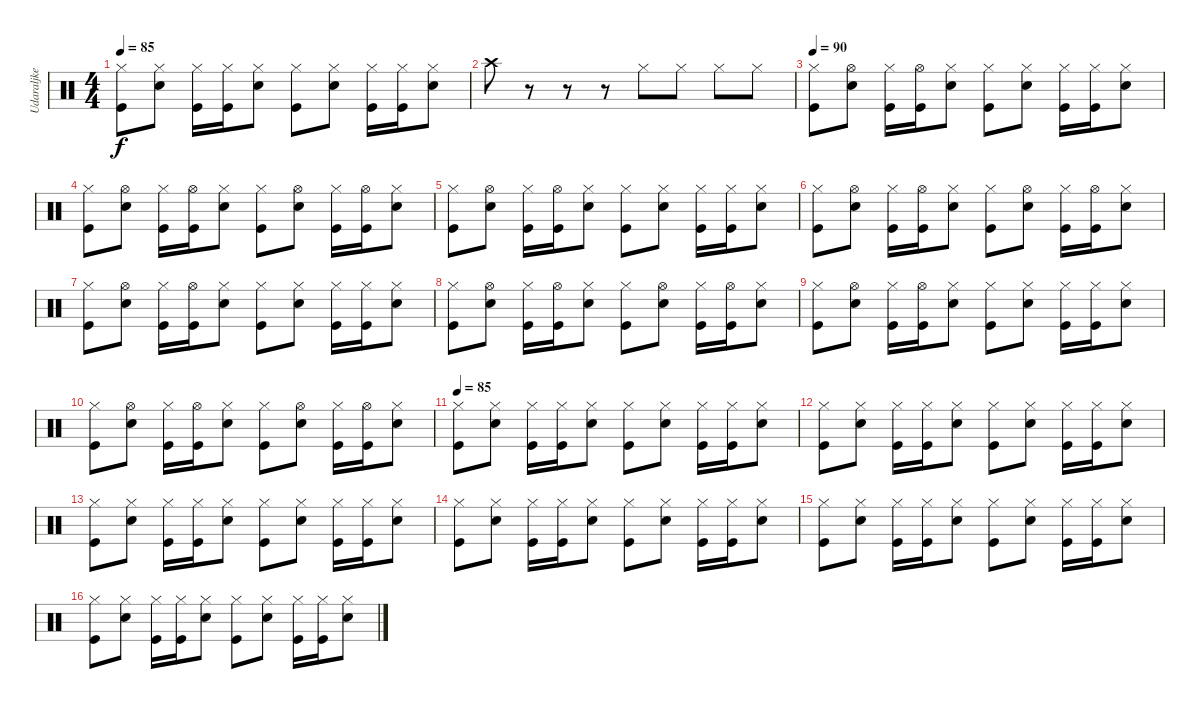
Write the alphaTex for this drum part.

\track ("Udaraljke" "Udaraljke") {instrument percussion}
\staff {score}
\articulation defaults
\ts (4 4)
\tempo 85
\clef neutral
\ks c
("Kick (hit)" "Hi-Hat (closed)").8{dy f} ("Snare (hit) 2" "Hi-Hat (closed)").8 ("Kick (hit)" "Hi-Hat (closed)").16 ("Kick (hit)" "Hi-Hat (closed)").16 ("Snare (hit) 2" "Hi-Hat (closed)").8 ("Kick (hit)" "Hi-Hat (closed)").8 ("Snare (hit) 2" "Hi-Hat (closed)").8 ("Kick (hit)" "Hi-Hat (closed)").16 ("Kick (hit)" "Hi-Hat (closed)").16 ("Snare (hit) 2" "Hi-Hat (closed)").8 |
"Crash high (hit)".8 r.8 r.8 r.8 "Hi-Hat (closed)".8 "Hi-Hat (closed)".8 "Hi-Hat (closed)".8 "Hi-Hat (closed)".8 |
\tempo 90
("Kick (hit)" "Hi-Hat (closed)").8 ("Snare (hit) 2" "Hi-Hat (open)").8 ("Kick (hit)" "Hi-Hat (closed)").16 ("Kick (hit)" "Hi-Hat (open)").16 ("Snare (hit) 2" "Hi-Hat (closed)").8 ("Kick (hit)" "Hi-Hat (closed)").8 ("Snare (hit) 2" "Hi-Hat (closed)").8 ("Kick (hit)" "Hi-Hat (closed)").16 ("Kick (hit)" "Hi-Hat (closed)").16 ("Snare (hit) 2" "Hi-Hat (closed)").8 |
("Kick (hit)" "Hi-Hat (closed)").8 ("Snare (hit) 2" "Hi-Hat (open)").8 ("Kick (hit)" "Hi-Hat (closed)").16 ("Kick (hit)" "Hi-Hat (open)").16 ("Snare (hit) 2" "Hi-Hat (closed)").8 ("Kick (hit)" "Hi-Hat (closed)").8 ("Snare (hit) 2" "Hi-Hat (open)").8 ("Kick (hit)" "Hi-Hat (closed)").16 ("Kick (hit)" "Hi-Hat (open)").16 ("Snare (hit) 2" "Hi-Hat (closed)").8 |
("Kick (hit)" "Hi-Hat (closed)").8 ("Snare (hit) 2" "Hi-Hat (open)").8 ("Kick (hit)" "Hi-Hat (closed)").16 ("Kick (hit)" "Hi-Hat (open)").16 ("Snare (hit) 2" "Hi-Hat (closed)").8 ("Kick (hit)" "Hi-Hat (closed)").8 ("Snare (hit) 2" "Hi-Hat (closed)").8 ("Kick (hit)" "Hi-Hat (closed)").16 ("Kick (hit)" "Hi-Hat (closed)").16 ("Snare (hit) 2" "Hi-Hat (closed)").8 |
("Kick (hit)" "Hi-Hat (closed)").8 ("Snare (hit) 2" "Hi-Hat (open)").8 ("Kick (hit)" "Hi-Hat (closed)").16 ("Kick (hit)" "Hi-Hat (open)").16 ("Snare (hit) 2" "Hi-Hat (closed)").8 ("Kick (hit)" "Hi-Hat (closed)").8 ("Snare (hit) 2" "Hi-Hat (open)").8 ("Kick (hit)" "Hi-Hat (closed)").16 ("Kick (hit)" "Hi-Hat (open)").16 ("Snare (hit) 2" "Hi-Hat (closed)").8 |
("Kick (hit)" "Hi-Hat (closed)").8 ("Snare (hit) 2" "Hi-Hat (open)").8 ("Kick (hit)" "Hi-Hat (closed)").16 ("Kick (hit)" "Hi-Hat (open)").16 ("Snare (hit) 2" "Hi-Hat (closed)").8 ("Kick (hit)" "Hi-Hat (closed)").8 ("Snare (hit) 2" "Hi-Hat (closed)").8 ("Kick (hit)" "Hi-Hat (closed)").16 ("Kick (hit)" "Hi-Hat (closed)").16 ("Snare (hit) 2" "Hi-Hat (closed)").8 |
("Kick (hit)" "Hi-Hat (closed)").8 ("Snare (hit) 2" "Hi-Hat (open)").8 ("Kick (hit)" "Hi-Hat (closed)").16 ("Kick (hit)" "Hi-Hat (open)").16 ("Snare (hit) 2" "Hi-Hat (closed)").8 ("Kick (hit)" "Hi-Hat (closed)").8 ("Snare (hit) 2" "Hi-Hat (open)").8 ("Kick (hit)" "Hi-Hat (closed)").16 ("Kick (hit)" "Hi-Hat (open)").16 ("Snare (hit) 2" "Hi-Hat (closed)").8 |
("Kick (hit)" "Hi-Hat (closed)").8 ("Snare (hit) 2" "Hi-Hat (open)").8 ("Kick (hit)" "Hi-Hat (closed)").16 ("Kick (hit)" "Hi-Hat (open)").16 ("Snare (hit) 2" "Hi-Hat (closed)").8 ("Kick (hit)" "Hi-Hat (closed)").8 ("Snare (hit) 2" "Hi-Hat (closed)").8 ("Kick (hit)" "Hi-Hat (closed)").16 ("Kick (hit)" "Hi-Hat (closed)").16 ("Snare (hit) 2" "Hi-Hat (closed)").8 |
("Kick (hit)" "Hi-Hat (closed)").8 ("Snare (hit) 2" "Hi-Hat (open)").8 ("Kick (hit)" "Hi-Hat (closed)").16 ("Kick (hit)" "Hi-Hat (open)").16 ("Snare (hit) 2" "Hi-Hat (closed)").8 ("Kick (hit)" "Hi-Hat (closed)").8 ("Snare (hit) 2" "Hi-Hat (open)").8 ("Kick (hit)" "Hi-Hat (closed)").16 ("Kick (hit)" "Hi-Hat (open)").16 ("Snare (hit) 2" "Hi-Hat (closed)").8 |
\tempo 85
("Kick (hit)" "Hi-Hat (closed)").8 ("Snare (hit) 2" "Hi-Hat (closed)").8 ("Kick (hit)" "Hi-Hat (closed)").16 ("Kick (hit)" "Hi-Hat (closed)").16 ("Snare (hit) 2" "Hi-Hat (closed)").8 ("Kick (hit)" "Hi-Hat (closed)").8 ("Snare (hit) 2" "Hi-Hat (closed)").8 ("Kick (hit)" "Hi-Hat (closed)").16 ("Kick (hit)" "Hi-Hat (closed)").16 ("Snare (hit) 2" "Hi-Hat (closed)").8 |
("Kick (hit)" "Hi-Hat (closed)").8 ("Snare (hit) 2" "Hi-Hat (closed)").8 ("Kick (hit)" "Hi-Hat (closed)").16 ("Kick (hit)" "Hi-Hat (closed)").16 ("Snare (hit) 2" "Hi-Hat (closed)").8 ("Kick (hit)" "Hi-Hat (closed)").8 ("Snare (hit) 2" "Hi-Hat (closed)").8 ("Kick (hit)" "Hi-Hat (closed)").16 ("Kick (hit)" "Hi-Hat (closed)").16 ("Snare (hit) 2" "Hi-Hat (closed)").8 |
("Kick (hit)" "Hi-Hat (closed)").8 ("Snare (hit) 2" "Hi-Hat (closed)").8 ("Kick (hit)" "Hi-Hat (closed)").16 ("Kick (hit)" "Hi-Hat (closed)").16 ("Snare (hit) 2" "Hi-Hat (closed)").8 ("Kick (hit)" "Hi-Hat (closed)").8 ("Snare (hit) 2" "Hi-Hat (closed)").8 ("Kick (hit)" "Hi-Hat (closed)").16 ("Kick (hit)" "Hi-Hat (closed)").16 ("Snare (hit) 2" "Hi-Hat (closed)").8 |
("Kick (hit)" "Hi-Hat (closed)").8 ("Snare (hit) 2" "Hi-Hat (closed)").8 ("Kick (hit)" "Hi-Hat (closed)").16 ("Kick (hit)" "Hi-Hat (closed)").16 ("Snare (hit) 2" "Hi-Hat (closed)").8 ("Kick (hit)" "Hi-Hat (closed)").8 ("Snare (hit) 2" "Hi-Hat (closed)").8 ("Kick (hit)" "Hi-Hat (closed)").16 ("Kick (hit)" "Hi-Hat (closed)").16 ("Snare (hit) 2" "Hi-Hat (closed)").8 |
("Kick (hit)" "Hi-Hat (closed)").8 ("Snare (hit) 2" "Hi-Hat (closed)").8 ("Kick (hit)" "Hi-Hat (closed)").16 ("Kick (hit)" "Hi-Hat (closed)").16 ("Snare (hit) 2" "Hi-Hat (closed)").8 ("Kick (hit)" "Hi-Hat (closed)").8 ("Snare (hit) 2" "Hi-Hat (closed)").8 ("Kick (hit)" "Hi-Hat (closed)").16 ("Kick (hit)" "Hi-Hat (closed)").16 ("Snare (hit) 2" "Hi-Hat (closed)").8 |
("Kick (hit)" "Hi-Hat (closed)").8 ("Snare (hit) 2" "Hi-Hat (closed)").8 ("Kick (hit)" "Hi-Hat (closed)").16 ("Kick (hit)" "Hi-Hat (closed)").16 ("Snare (hit) 2" "Hi-Hat (closed)").8 ("Kick (hit)" "Hi-Hat (closed)").8 ("Snare (hit) 2" "Hi-Hat (closed)").8 ("Kick (hit)" "Hi-Hat (closed)").16 ("Kick (hit)" "Hi-Hat (closed)").16 ("Snare (hit) 2" "Hi-Hat (closed)").8
